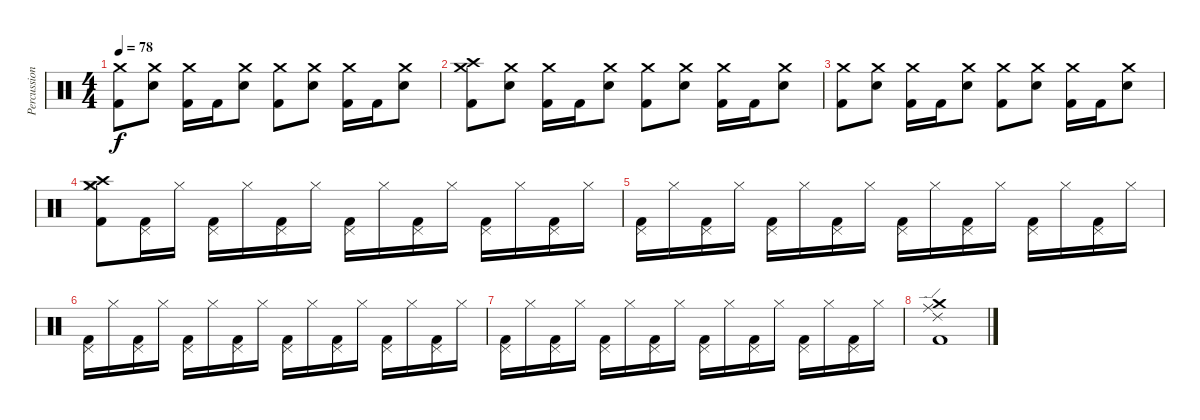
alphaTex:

\track ("Percussioni" "Percussion") {instrument percussion}
\staff {score}
\articulation defaults
\ts (4 4)
\tempo 78
\clef neutral
\ks c
("Crash medium (hit)" "Kick (hit) 2").8{dy f} ("Crash medium (hit)" "Snare (hit) 2").8 ("Crash medium (hit)" "Kick (hit) 2").16 "Kick (hit) 2".16 ("Crash medium (hit)" "Snare (hit) 2").8 ("Crash medium (hit)" "Kick (hit) 2").8 ("Crash medium (hit)" "Snare (hit) 2").8 ("Crash medium (hit)" "Kick (hit) 2").16 "Kick (hit) 2".16 ("Crash medium (hit)" "Snare (hit) 2").8 |
("Crash high (hit)" "Crash medium (hit)" "Kick (hit) 2").8 ("Crash medium (hit)" "Snare (hit) 2").8 ("Crash medium (hit)" "Kick (hit) 2").16 "Kick (hit) 2".16 ("Crash medium (hit)" "Snare (hit) 2").8 ("Crash medium (hit)" "Kick (hit) 2").8 ("Crash medium (hit)" "Snare (hit) 2").8 ("Crash medium (hit)" "Kick (hit) 2").16 "Kick (hit) 2".16 ("Crash medium (hit)" "Snare (hit) 2").8 |
("Crash medium (hit)" "Kick (hit) 2").8 ("Crash medium (hit)" "Snare (hit) 2").8 ("Crash medium (hit)" "Kick (hit) 2").16 "Kick (hit) 2".16 ("Crash medium (hit)" "Snare (hit) 2").8 ("Crash medium (hit)" "Kick (hit) 2").8 ("Crash medium (hit)" "Snare (hit) 2").8 ("Crash medium (hit)" "Kick (hit) 2").16 "Kick (hit) 2".16 ("Crash medium (hit)" "Snare (hit) 2").8 |
("Crash high (hit)" "Crash medium (hit)" "Hi-Hat (closed)" "Kick (hit) 2").8 ("Pedal Hi-Hat (hit)" "Kick (hit) 2").16 "Hi-Hat (closed)".16 ("Pedal Hi-Hat (hit)" "Kick (hit) 2").16 "Hi-Hat (closed)".16 ("Pedal Hi-Hat (hit)" "Kick (hit) 2").16 "Hi-Hat (closed)".16 ("Pedal Hi-Hat (hit)" "Kick (hit) 2").16 "Hi-Hat (closed)".16 ("Pedal Hi-Hat (hit)" "Kick (hit) 2").16 "Hi-Hat (closed)".16 ("Pedal Hi-Hat (hit)" "Kick (hit) 2").16 "Hi-Hat (closed)".16 ("Pedal Hi-Hat (hit)" "Kick (hit) 2").16 "Hi-Hat (closed)".16 |
("Pedal Hi-Hat (hit)" "Kick (hit) 2").16 "Hi-Hat (closed)".16 ("Pedal Hi-Hat (hit)" "Kick (hit) 2").16 "Hi-Hat (closed)".16 ("Pedal Hi-Hat (hit)" "Kick (hit) 2").16 "Hi-Hat (closed)".16 ("Pedal Hi-Hat (hit)" "Kick (hit) 2").16 "Hi-Hat (closed)".16 ("Pedal Hi-Hat (hit)" "Kick (hit) 2").16 "Hi-Hat (closed)".16 ("Pedal Hi-Hat (hit)" "Kick (hit) 2").16 "Hi-Hat (closed)".16 ("Pedal Hi-Hat (hit)" "Kick (hit) 2").16 "Hi-Hat (closed)".16 ("Pedal Hi-Hat (hit)" "Kick (hit) 2").16 "Hi-Hat (closed)".16 |
("Pedal Hi-Hat (hit)" "Kick (hit) 2").16 "Hi-Hat (closed)".16 ("Pedal Hi-Hat (hit)" "Kick (hit) 2").16 "Hi-Hat (closed)".16 ("Pedal Hi-Hat (hit)" "Kick (hit) 2").16 "Hi-Hat (closed)".16 ("Pedal Hi-Hat (hit)" "Kick (hit) 2").16 "Hi-Hat (closed)".16 ("Pedal Hi-Hat (hit)" "Kick (hit) 2").16 "Hi-Hat (closed)".16 ("Pedal Hi-Hat (hit)" "Kick (hit) 2").16 "Hi-Hat (closed)".16 ("Pedal Hi-Hat (hit)" "Kick (hit) 2").16 "Hi-Hat (closed)".16 ("Pedal Hi-Hat (hit)" "Kick (hit) 2").16 "Hi-Hat (closed)".16 |
("Pedal Hi-Hat (hit)" "Kick (hit) 2").16 "Hi-Hat (closed)".16 ("Pedal Hi-Hat (hit)" "Kick (hit) 2").16 "Hi-Hat (closed)".16 ("Pedal Hi-Hat (hit)" "Kick (hit) 2").16 "Hi-Hat (closed)".16 ("Pedal Hi-Hat (hit)" "Kick (hit) 2").16 "Hi-Hat (closed)".16 ("Pedal Hi-Hat (hit)" "Kick (hit) 2").16 "Hi-Hat (closed)".16 ("Pedal Hi-Hat (hit)" "Kick (hit) 2").16 "Hi-Hat (closed)".16 ("Pedal Hi-Hat (hit)" "Kick (hit) 2").16 "Hi-Hat (closed)".16 ("Pedal Hi-Hat (hit)" "Kick (hit) 2").16 "Hi-Hat (closed)".16 |
("Crash medium (hit)" "Ride (edge) 2" "Ride (middle)" "Kick (hit) 2").1
